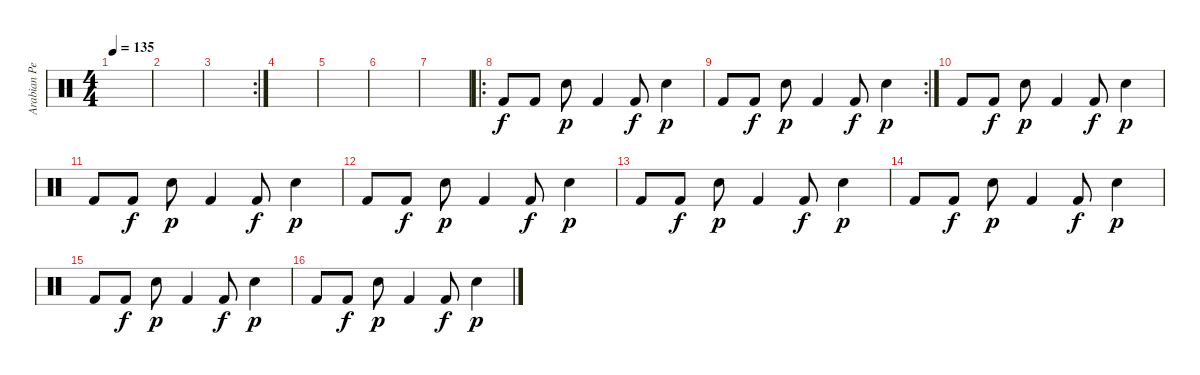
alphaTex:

\track ("Arabian Perc" "Arabian Pe") {instrument percussion}
\staff {score}
\articulation defaults
\ts (4 4)
\tempo 135
\clef neutral
\ks c
|
|
\rc 2
|
|
|
|
|
\ro "Kick (hit) 2".8 "Kick (hit) 2".8{dy f} "Electric Snare (hit)".8{dy p} "Kick (hit) 2".4 "Kick (hit) 2".8{dy f} "Electric Snare (hit)".4{dy p}
|
\rc 2 "Kick (hit) 2".8 "Kick (hit) 2".8{dy f} "Electric Snare (hit)".8{dy p} "Kick (hit) 2".4 "Kick (hit) 2".8{dy f} "Electric Snare (hit)".4{dy p}
|
"Kick (hit) 2".8 "Kick (hit) 2".8{dy f} "Electric Snare (hit)".8{dy p} "Kick (hit) 2".4 "Kick (hit) 2".8{dy f} "Electric Snare (hit)".4{dy p} |
"Kick (hit) 2".8 "Kick (hit) 2".8{dy f} "Electric Snare (hit)".8{dy p} "Kick (hit) 2".4 "Kick (hit) 2".8{dy f} "Electric Snare (hit)".4{dy p} |
"Kick (hit) 2".8 "Kick (hit) 2".8{dy f} "Electric Snare (hit)".8{dy p} "Kick (hit) 2".4 "Kick (hit) 2".8{dy f} "Electric Snare (hit)".4{dy p} |
"Kick (hit) 2".8 "Kick (hit) 2".8{dy f} "Electric Snare (hit)".8{dy p} "Kick (hit) 2".4 "Kick (hit) 2".8{dy f} "Electric Snare (hit)".4{dy p} |
"Kick (hit) 2".8 "Kick (hit) 2".8{dy f} "Electric Snare (hit)".8{dy p} "Kick (hit) 2".4 "Kick (hit) 2".8{dy f} "Electric Snare (hit)".4{dy p} |
"Kick (hit) 2".8 "Kick (hit) 2".8{dy f} "Electric Snare (hit)".8{dy p} "Kick (hit) 2".4 "Kick (hit) 2".8{dy f} "Electric Snare (hit)".4{dy p} |
"Kick (hit) 2".8 "Kick (hit) 2".8{dy f} "Electric Snare (hit)".8{dy p} "Kick (hit) 2".4 "Kick (hit) 2".8{dy f} "Electric Snare (hit)".4{dy p}
